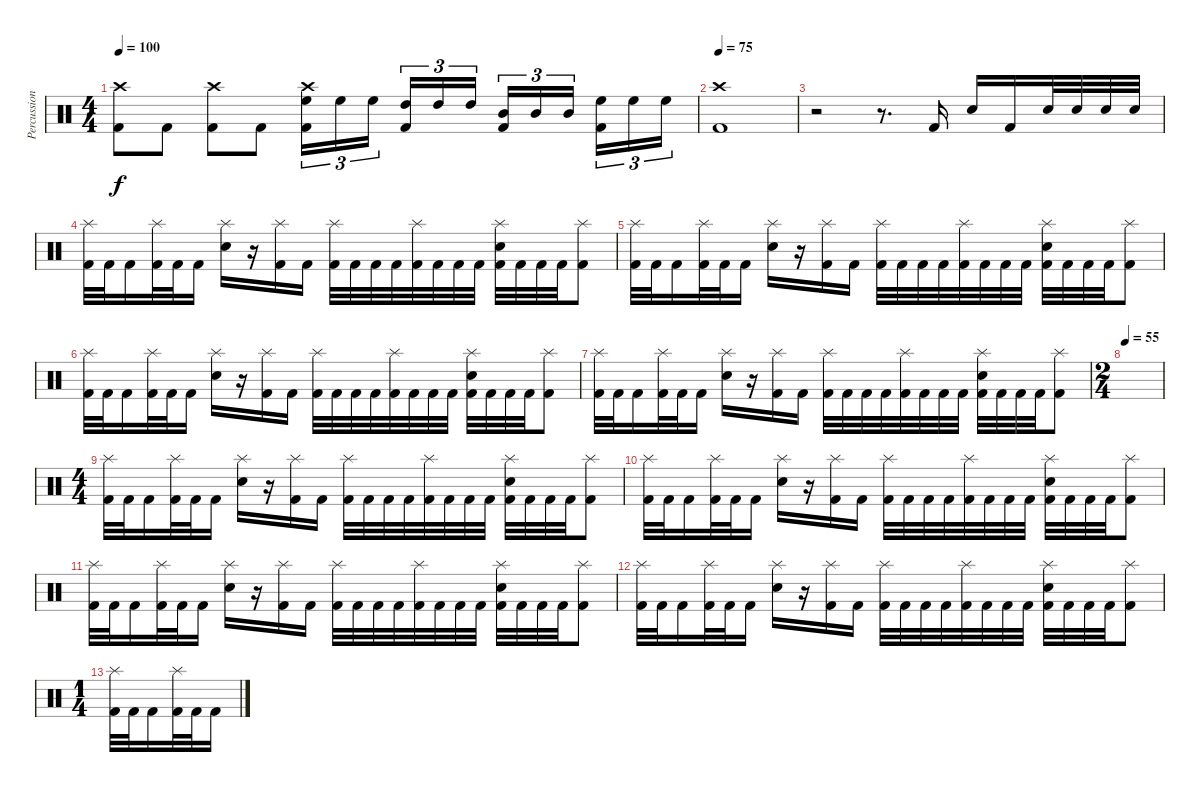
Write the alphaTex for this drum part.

\track ("Percussion" "Percussion") {instrument percussion}
\staff {score}
\articulation defaults
\ts (4 4)
\tempo 100
\clef neutral
\ks c
("Crash high (hit)" "Kick (hit) 2").8{dy f} "Kick (hit) 2".8 ("Crash high (hit)" "Kick (hit) 2").8 "Kick (hit) 2".8 ("Crash high (hit)" "High Floor Tom (hit)" "Kick (hit) 2").16{tu (3 2)} "High Floor Tom (hit)".16{tu (3 2)} "High Floor Tom (hit)".16{tu (3 2) beam splitsecondary} ("High Tom (hit)" "Kick (hit) 2").16{tu (3 2)} "High Tom (hit)".16{tu (3 2)} "High Tom (hit)".16{tu (3 2)} ("Mid Tom (hit)" "Kick (hit) 2").16{tu (3 2)} "Mid Tom (hit)".16{tu (3 2)} "Mid Tom (hit)".16{tu (3 2) beam splitsecondary} ("High Floor Tom (hit)" "Kick (hit) 2").16{tu (3 2)} "High Floor Tom (hit)".16{tu (3 2)} "High Floor Tom (hit)".16{tu (3 2)} |
\tempo 75
("Crash high (hit)" "Kick (hit) 2").1 |
r.2 r.8{d} "Kick (hit) 2".16 "Snare (hit) 2".16 "Kick (hit) 2".16 "Snare (hit) 2".32 "Snare (hit) 2".32 "Snare (hit) 2".32 "Snare (hit) 2".32 |
("Splash (hit)" "Kick (hit) 2").32 "Kick (hit) 2".32 "Kick (hit) 2".16 ("Splash (hit)" "Kick (hit) 2").32 "Kick (hit) 2".32 "Kick (hit) 2".16 ("Splash (hit)" "Snare (hit) 2").16 r.16 ("Splash (hit)" "Kick (hit) 2").16 "Kick (hit) 2".16 ("Splash (hit)" "Kick (hit) 2").32 "Kick (hit) 2".32 "Kick (hit) 2".32 "Kick (hit) 2".32 ("Splash (hit)" "Kick (hit) 2").32 "Kick (hit) 2".32 "Kick (hit) 2".32 "Kick (hit) 2".32 ("Splash (hit)" "Snare (hit) 2" "Kick (hit) 2").32 "Kick (hit) 2".32 "Kick (hit) 2".32 "Kick (hit) 2".32 ("Splash (hit)" "Kick (hit) 2").8 |
("Splash (hit)" "Kick (hit) 2").32 "Kick (hit) 2".32 "Kick (hit) 2".16 ("Splash (hit)" "Kick (hit) 2").32 "Kick (hit) 2".32 "Kick (hit) 2".16 ("Splash (hit)" "Snare (hit) 2").16 r.16 ("Splash (hit)" "Kick (hit) 2").16 "Kick (hit) 2".16 ("Splash (hit)" "Kick (hit) 2").32 "Kick (hit) 2".32 "Kick (hit) 2".32 "Kick (hit) 2".32 ("Splash (hit)" "Kick (hit) 2").32 "Kick (hit) 2".32 "Kick (hit) 2".32 "Kick (hit) 2".32 ("Splash (hit)" "Snare (hit) 2" "Kick (hit) 2").32 "Kick (hit) 2".32 "Kick (hit) 2".32 "Kick (hit) 2".32 ("Splash (hit)" "Kick (hit) 2").8 |
("Splash (hit)" "Kick (hit) 2").32 "Kick (hit) 2".32 "Kick (hit) 2".16 ("Splash (hit)" "Kick (hit) 2").32 "Kick (hit) 2".32 "Kick (hit) 2".16 ("Splash (hit)" "Snare (hit) 2").16 r.16 ("Splash (hit)" "Kick (hit) 2").16 "Kick (hit) 2".16 ("Splash (hit)" "Kick (hit) 2").32 "Kick (hit) 2".32 "Kick (hit) 2".32 "Kick (hit) 2".32 ("Splash (hit)" "Kick (hit) 2").32 "Kick (hit) 2".32 "Kick (hit) 2".32 "Kick (hit) 2".32 ("Splash (hit)" "Snare (hit) 2" "Kick (hit) 2").32 "Kick (hit) 2".32 "Kick (hit) 2".32 "Kick (hit) 2".32 ("Splash (hit)" "Kick (hit) 2").8 |
("Splash (hit)" "Kick (hit) 2").32 "Kick (hit) 2".32 "Kick (hit) 2".16 ("Splash (hit)" "Kick (hit) 2").32 "Kick (hit) 2".32 "Kick (hit) 2".16 ("Splash (hit)" "Snare (hit) 2").16 r.16 ("Splash (hit)" "Kick (hit) 2").16 "Kick (hit) 2".16 ("Splash (hit)" "Kick (hit) 2").32 "Kick (hit) 2".32 "Kick (hit) 2".32 "Kick (hit) 2".32 ("Splash (hit)" "Kick (hit) 2").32 "Kick (hit) 2".32 "Kick (hit) 2".32 "Kick (hit) 2".32 ("Splash (hit)" "Snare (hit) 2" "Kick (hit) 2").32 "Kick (hit) 2".32 "Kick (hit) 2".32 "Kick (hit) 2".32 ("Splash (hit)" "Kick (hit) 2").8 |
\ts (2 4)
\tempo 55
|
\ts (4 4)
("Splash (hit)" "Kick (hit) 2").32 "Kick (hit) 2".32 "Kick (hit) 2".16 ("Splash (hit)" "Kick (hit) 2").32 "Kick (hit) 2".32 "Kick (hit) 2".16 ("Splash (hit)" "Snare (hit) 2").16 r.16 ("Splash (hit)" "Kick (hit) 2").16 "Kick (hit) 2".16 ("Splash (hit)" "Kick (hit) 2").32 "Kick (hit) 2".32 "Kick (hit) 2".32 "Kick (hit) 2".32 ("Splash (hit)" "Kick (hit) 2").32 "Kick (hit) 2".32 "Kick (hit) 2".32 "Kick (hit) 2".32 ("Splash (hit)" "Snare (hit) 2" "Kick (hit) 2").32 "Kick (hit) 2".32 "Kick (hit) 2".32 "Kick (hit) 2".32 ("Splash (hit)" "Kick (hit) 2").8 |
("Splash (hit)" "Kick (hit) 2").32 "Kick (hit) 2".32 "Kick (hit) 2".16 ("Splash (hit)" "Kick (hit) 2").32 "Kick (hit) 2".32 "Kick (hit) 2".16 ("Splash (hit)" "Snare (hit) 2").16 r.16 ("Splash (hit)" "Kick (hit) 2").16 "Kick (hit) 2".16 ("Splash (hit)" "Kick (hit) 2").32 "Kick (hit) 2".32 "Kick (hit) 2".32 "Kick (hit) 2".32 ("Splash (hit)" "Kick (hit) 2").32 "Kick (hit) 2".32 "Kick (hit) 2".32 "Kick (hit) 2".32 ("Splash (hit)" "Snare (hit) 2" "Kick (hit) 2").32 "Kick (hit) 2".32 "Kick (hit) 2".32 "Kick (hit) 2".32 ("Splash (hit)" "Kick (hit) 2").8 |
("Splash (hit)" "Kick (hit) 2").32 "Kick (hit) 2".32 "Kick (hit) 2".16 ("Splash (hit)" "Kick (hit) 2").32 "Kick (hit) 2".32 "Kick (hit) 2".16 ("Splash (hit)" "Snare (hit) 2").16 r.16 ("Splash (hit)" "Kick (hit) 2").16 "Kick (hit) 2".16 ("Splash (hit)" "Kick (hit) 2").32 "Kick (hit) 2".32 "Kick (hit) 2".32 "Kick (hit) 2".32 ("Splash (hit)" "Kick (hit) 2").32 "Kick (hit) 2".32 "Kick (hit) 2".32 "Kick (hit) 2".32 ("Splash (hit)" "Snare (hit) 2" "Kick (hit) 2").32 "Kick (hit) 2".32 "Kick (hit) 2".32 "Kick (hit) 2".32 ("Splash (hit)" "Kick (hit) 2").8 |
("Splash (hit)" "Kick (hit) 2").32 "Kick (hit) 2".32 "Kick (hit) 2".16 ("Splash (hit)" "Kick (hit) 2").32 "Kick (hit) 2".32 "Kick (hit) 2".16 ("Splash (hit)" "Snare (hit) 2").16 r.16 ("Splash (hit)" "Kick (hit) 2").16 "Kick (hit) 2".16 ("Splash (hit)" "Kick (hit) 2").32 "Kick (hit) 2".32 "Kick (hit) 2".32 "Kick (hit) 2".32 ("Splash (hit)" "Kick (hit) 2").32 "Kick (hit) 2".32 "Kick (hit) 2".32 "Kick (hit) 2".32 ("Splash (hit)" "Snare (hit) 2" "Kick (hit) 2").32 "Kick (hit) 2".32 "Kick (hit) 2".32 "Kick (hit) 2".32 ("Splash (hit)" "Kick (hit) 2").8 |
\ts (1 4)
("Splash (hit)" "Kick (hit) 2").32 "Kick (hit) 2".32 "Kick (hit) 2".16 ("Splash (hit)" "Kick (hit) 2").32 "Kick (hit) 2".32 "Kick (hit) 2".16
